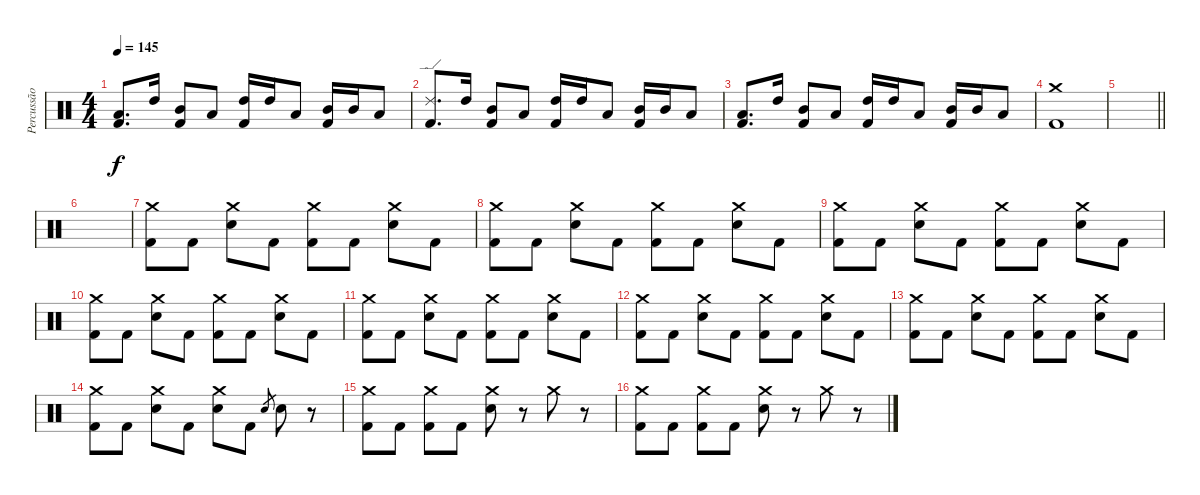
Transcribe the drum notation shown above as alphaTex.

\track ("Percussão" "Percussão") {instrument percussion}
\staff {score}
\articulation defaults
\ts (4 4)
\tempo 145
\clef neutral
\ks c
("Low Tom (hit)" "Kick (hit) 2").8{d dy f} "High Tom (hit)".16 ("Mid Tom (hit)" "Kick (hit) 2").8 "Low Tom (hit)".8 ("High Tom (hit)" "Kick (hit) 2").16 "High Tom (hit)".16 "Low Tom (hit)".8 ("Mid Tom (hit)" "Kick (hit) 2").16 "Mid Tom (hit)".16 "Low Tom (hit)".8 |
("Ride (edge) 2" "Kick (hit) 2").8{d} "High Tom (hit)".16 ("Mid Tom (hit)" "Kick (hit) 2").8 "Low Tom (hit)".8 ("High Tom (hit)" "Kick (hit) 2").16 "High Tom (hit)".16 "Low Tom (hit)".8 ("Mid Tom (hit)" "Kick (hit) 2").16 "Mid Tom (hit)".16 "Low Tom (hit)".8 |
("Low Tom (hit)" "Kick (hit) 2").8{d} "High Tom (hit)".16 ("Mid Tom (hit)" "Kick (hit) 2").8 "Low Tom (hit)".8 ("High Tom (hit)" "Kick (hit) 2").16 "High Tom (hit)".16 "Low Tom (hit)".8 ("Mid Tom (hit)" "Kick (hit) 2").16 "Mid Tom (hit)".16 "Low Tom (hit)".8 |
("Crash medium (hit)" "Kick (hit) 2").1 |
\barLineRight lightlight
|
|
("Crash medium (hit)" "Kick (hit) 2").8 "Kick (hit) 2".8 ("Crash medium (hit)" "Electric Snare (hit)").8 "Kick (hit) 2".8 ("Crash medium (hit)" "Kick (hit) 2").8 "Kick (hit) 2".8 ("Crash medium (hit)" "Electric Snare (hit)").8 "Kick (hit) 2".8 |
("Crash medium (hit)" "Kick (hit) 2").8 "Kick (hit) 2".8 ("Crash medium (hit)" "Electric Snare (hit)").8 "Kick (hit) 2".8 ("Crash medium (hit)" "Kick (hit) 2").8 "Kick (hit) 2".8 ("Crash medium (hit)" "Electric Snare (hit)").8 "Kick (hit) 2".8 |
("Crash medium (hit)" "Kick (hit) 2").8 "Kick (hit) 2".8 ("Crash medium (hit)" "Electric Snare (hit)").8 "Kick (hit) 2".8 ("Crash medium (hit)" "Kick (hit) 2").8 "Kick (hit) 2".8 ("Crash medium (hit)" "Electric Snare (hit)").8 "Kick (hit) 2".8 |
("Crash medium (hit)" "Kick (hit) 2").8 "Kick (hit) 2".8 ("Crash medium (hit)" "Electric Snare (hit)").8 "Kick (hit) 2".8 ("Crash medium (hit)" "Kick (hit) 2").8 "Kick (hit) 2".8 ("Crash medium (hit)" "Electric Snare (hit)").8 "Kick (hit) 2".8 |
("Crash medium (hit)" "Kick (hit) 2").8 "Kick (hit) 2".8 ("Crash medium (hit)" "Electric Snare (hit)").8 "Kick (hit) 2".8 ("Crash medium (hit)" "Kick (hit) 2").8 "Kick (hit) 2".8 ("Crash medium (hit)" "Electric Snare (hit)").8 "Kick (hit) 2".8 |
("Crash medium (hit)" "Kick (hit) 2").8 "Kick (hit) 2".8 ("Crash medium (hit)" "Electric Snare (hit)").8 "Kick (hit) 2".8 ("Crash medium (hit)" "Kick (hit) 2").8 "Kick (hit) 2".8 ("Crash medium (hit)" "Electric Snare (hit)").8 "Kick (hit) 2".8 |
("Crash medium (hit)" "Kick (hit) 2").8 "Kick (hit) 2".8 ("Crash medium (hit)" "Electric Snare (hit)").8 "Kick (hit) 2".8 ("Crash medium (hit)" "Kick (hit) 2").8 "Kick (hit) 2".8 ("Crash medium (hit)" "Electric Snare (hit)").8 "Kick (hit) 2".8 |
("Crash medium (hit)" "Kick (hit) 2").8 "Kick (hit) 2".8 ("Crash medium (hit)" "Electric Snare (hit)").8 "Kick (hit) 2".8 ("Crash medium (hit)" "Electric Snare (hit)").8 "Kick (hit) 2".8 "Electric Snare (hit)".8{gr} "Electric Snare (hit)".8 r.8 |
("Crash medium (hit)" "Kick (hit) 2").8 "Kick (hit) 2".8 ("Crash medium (hit)" "Kick (hit) 2").8 "Kick (hit) 2".8 ("Crash medium (hit)" "Electric Snare (hit)").8 r.8 "Crash medium (hit)".8 r.8 |
("Crash medium (hit)" "Kick (hit) 2").8 "Kick (hit) 2".8 ("Crash medium (hit)" "Kick (hit) 2").8 "Kick (hit) 2".8 ("Crash medium (hit)" "Electric Snare (hit)").8 r.8 "Crash medium (hit)".8 r.8
